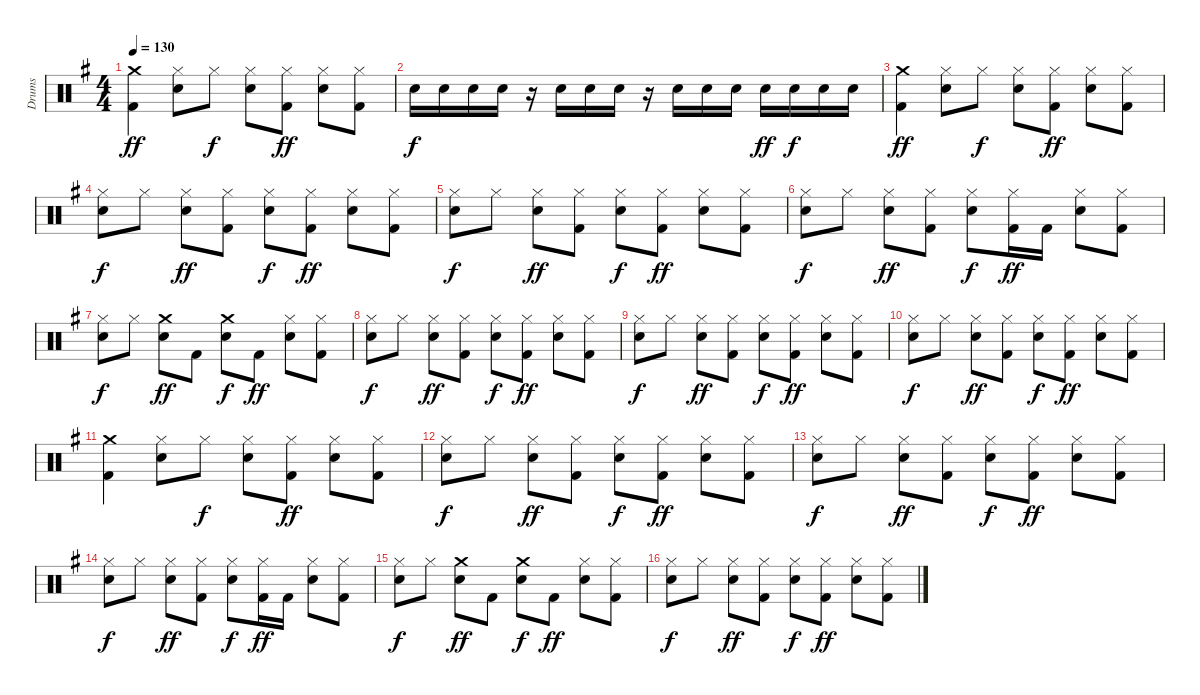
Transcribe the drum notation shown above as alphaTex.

\track ("Drums" "Drums") {instrument percussion}
\staff {score}
\articulation defaults
\ts (4 4)
\tempo 130
\clef neutral
\ks g
("Kick (hit) 2" "Crash medium (hit)").4{dy ff} ("Snare (hit) 2" "Hi-Hat (closed)").8 "Hi-Hat (closed)".8{dy f} ("Snare (hit) 2" "Hi-Hat (closed)").8 ("Kick (hit) 2" "Hi-Hat (closed)").8{dy ff} ("Snare (hit) 2" "Hi-Hat (closed)").8 ("Kick (hit) 2" "Hi-Hat (closed)").8 |
"Snare (hit) 2".16{dy f} "Snare (hit) 2".16 "Snare (hit) 2".16 "Snare (hit) 2".16 r.16 "Snare (hit) 2".16 "Snare (hit) 2".16 "Snare (hit) 2".16 r.16 "Snare (hit) 2".16 "Snare (hit) 2".16 "Snare (hit) 2".16 "Snare (hit) 2".16{dy ff} "Snare (hit) 2".16{dy f} "Snare (hit) 2".16 "Snare (hit) 2".16 |
("Kick (hit) 2" "Crash medium (hit)").4{dy ff} ("Snare (hit) 2" "Hi-Hat (closed)").8 "Hi-Hat (closed)".8{dy f} ("Snare (hit) 2" "Hi-Hat (closed)").8 ("Kick (hit) 2" "Hi-Hat (closed)").8{dy ff} ("Snare (hit) 2" "Hi-Hat (closed)").8 ("Kick (hit) 2" "Hi-Hat (closed)").8 |
("Snare (hit) 2" "Hi-Hat (closed)").8{dy f} "Hi-Hat (closed)".8 ("Snare (hit) 2" "Hi-Hat (closed)").8{dy ff} ("Kick (hit) 2" "Hi-Hat (closed)").8 ("Snare (hit) 2" "Hi-Hat (closed)").8{dy f} ("Kick (hit) 2" "Hi-Hat (closed)").8{dy ff} ("Snare (hit) 2" "Hi-Hat (closed)").8 ("Kick (hit) 2" "Hi-Hat (closed)").8 |
("Snare (hit) 2" "Hi-Hat (closed)").8{dy f} "Hi-Hat (closed)".8 ("Snare (hit) 2" "Hi-Hat (closed)").8{dy ff} ("Kick (hit) 2" "Hi-Hat (closed)").8 ("Snare (hit) 2" "Hi-Hat (closed)").8{dy f} ("Kick (hit) 2" "Hi-Hat (closed)").8{dy ff} ("Snare (hit) 2" "Hi-Hat (closed)").8 ("Kick (hit) 2" "Hi-Hat (closed)").8 |
("Snare (hit) 2" "Hi-Hat (closed)").8{dy f} "Hi-Hat (closed)".8 ("Snare (hit) 2" "Hi-Hat (closed)").8{dy ff} ("Kick (hit) 2" "Hi-Hat (closed)").8 ("Snare (hit) 2" "Hi-Hat (closed)").8{dy f} ("Kick (hit) 2" "Hi-Hat (closed)").16{dy ff} "Kick (hit) 2".16 ("Snare (hit) 2" "Hi-Hat (closed)").8 ("Kick (hit) 2" "Hi-Hat (closed)").8 |
("Snare (hit) 2" "Hi-Hat (closed)").8{dy f} "Hi-Hat (closed)".8 ("Snare (hit) 2" "Crash medium (hit)").8{dy ff} "Kick (hit) 2".8 ("Snare (hit) 2" "Crash medium (hit)").8{dy f} "Kick (hit) 2".8{dy ff} ("Snare (hit) 2" "Hi-Hat (closed)").8 ("Kick (hit) 2" "Hi-Hat (closed)").8 |
("Snare (hit) 2" "Hi-Hat (closed)").8{dy f} "Hi-Hat (closed)".8 ("Snare (hit) 2" "Hi-Hat (closed)").8{dy ff} ("Kick (hit) 2" "Hi-Hat (closed)").8 ("Snare (hit) 2" "Hi-Hat (closed)").8{dy f} ("Kick (hit) 2" "Hi-Hat (closed)").8{dy ff} ("Snare (hit) 2" "Hi-Hat (closed)").8 ("Kick (hit) 2" "Hi-Hat (closed)").8 |
("Snare (hit) 2" "Hi-Hat (closed)").8{dy f} "Hi-Hat (closed)".8 ("Snare (hit) 2" "Hi-Hat (closed)").8{dy ff} ("Kick (hit) 2" "Hi-Hat (closed)").8 ("Snare (hit) 2" "Hi-Hat (closed)").8{dy f} ("Kick (hit) 2" "Hi-Hat (closed)").8{dy ff} ("Snare (hit) 2" "Hi-Hat (closed)").8 ("Kick (hit) 2" "Hi-Hat (closed)").8 |
("Snare (hit) 2" "Hi-Hat (closed)").8{dy f} "Hi-Hat (closed)".8 ("Snare (hit) 2" "Hi-Hat (closed)").8{dy ff} ("Kick (hit) 2" "Hi-Hat (closed)").8 ("Snare (hit) 2" "Hi-Hat (closed)").8{dy f} ("Kick (hit) 2" "Hi-Hat (closed)").8{dy ff} ("Snare (hit) 2" "Hi-Hat (closed)").8 ("Kick (hit) 2" "Hi-Hat (closed)").8 |
("Kick (hit) 2" "Crash medium (hit)").4 ("Snare (hit) 2" "Hi-Hat (closed)").8 "Hi-Hat (closed)".8{dy f} ("Snare (hit) 2" "Hi-Hat (closed)").8 ("Kick (hit) 2" "Hi-Hat (closed)").8{dy ff} ("Snare (hit) 2" "Hi-Hat (closed)").8 ("Kick (hit) 2" "Hi-Hat (closed)").8 |
("Snare (hit) 2" "Hi-Hat (closed)").8{dy f} "Hi-Hat (closed)".8 ("Snare (hit) 2" "Hi-Hat (closed)").8{dy ff} ("Kick (hit) 2" "Hi-Hat (closed)").8 ("Snare (hit) 2" "Hi-Hat (closed)").8{dy f} ("Kick (hit) 2" "Hi-Hat (closed)").8{dy ff} ("Snare (hit) 2" "Hi-Hat (closed)").8 ("Kick (hit) 2" "Hi-Hat (closed)").8 |
("Snare (hit) 2" "Hi-Hat (closed)").8{dy f} "Hi-Hat (closed)".8 ("Snare (hit) 2" "Hi-Hat (closed)").8{dy ff} ("Kick (hit) 2" "Hi-Hat (closed)").8 ("Snare (hit) 2" "Hi-Hat (closed)").8{dy f} ("Kick (hit) 2" "Hi-Hat (closed)").8{dy ff} ("Snare (hit) 2" "Hi-Hat (closed)").8 ("Kick (hit) 2" "Hi-Hat (closed)").8 |
("Snare (hit) 2" "Hi-Hat (closed)").8{dy f} "Hi-Hat (closed)".8 ("Snare (hit) 2" "Hi-Hat (closed)").8{dy ff} ("Kick (hit) 2" "Hi-Hat (closed)").8 ("Snare (hit) 2" "Hi-Hat (closed)").8{dy f} ("Kick (hit) 2" "Hi-Hat (closed)").16{dy ff} "Kick (hit) 2".16 ("Snare (hit) 2" "Hi-Hat (closed)").8 ("Kick (hit) 2" "Hi-Hat (closed)").8 |
("Snare (hit) 2" "Hi-Hat (closed)").8{dy f} "Hi-Hat (closed)".8 ("Snare (hit) 2" "Crash medium (hit)").8{dy ff} "Kick (hit) 2".8 ("Snare (hit) 2" "Crash medium (hit)").8{dy f} "Kick (hit) 2".8{dy ff} ("Snare (hit) 2" "Hi-Hat (closed)").8 ("Kick (hit) 2" "Hi-Hat (closed)").8 |
("Snare (hit) 2" "Hi-Hat (closed)").8{dy f} "Hi-Hat (closed)".8 ("Snare (hit) 2" "Hi-Hat (closed)").8{dy ff} ("Kick (hit) 2" "Hi-Hat (closed)").8 ("Snare (hit) 2" "Hi-Hat (closed)").8{dy f} ("Kick (hit) 2" "Hi-Hat (closed)").8{dy ff} ("Snare (hit) 2" "Hi-Hat (closed)").8 ("Kick (hit) 2" "Hi-Hat (closed)").8
